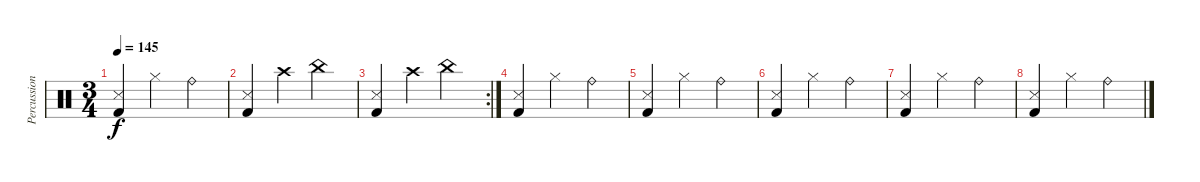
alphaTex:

\track ("Percussion" "Percussion") {instrument percussion}
\staff {score}
\articulation defaults
\ts (3 4)
\tempo 145
\clef neutral
\ks c
("Kick (hit) 2" "Snare (side stick) 3").4{dy f} "Hi-Hat (closed)".4 "Ride (bell)".4 |
("Kick (hit) 2" "Snare (side stick) 3").4 "Crash high (hit)".4 "China (hit)".4 |
\rc 2
("Kick (hit) 2" "Snare (side stick) 3").4 "Crash high (hit)".4 "China (hit)".4 |
("Kick (hit) 2" "Snare (side stick) 3").4 "Hi-Hat (closed)".4 "Ride (bell)".4 |
("Kick (hit) 2" "Snare (side stick) 3").4 "Hi-Hat (closed)".4 "Ride (bell)".4 |
("Kick (hit) 2" "Snare (side stick) 3").4 "Hi-Hat (closed)".4 "Ride (bell)".4 |
("Kick (hit) 2" "Snare (side stick) 3").4 "Hi-Hat (closed)".4 "Ride (bell)".4 |
("Kick (hit) 2" "Snare (side stick) 3").4 "Hi-Hat (closed)".4 "Ride (bell)".4
